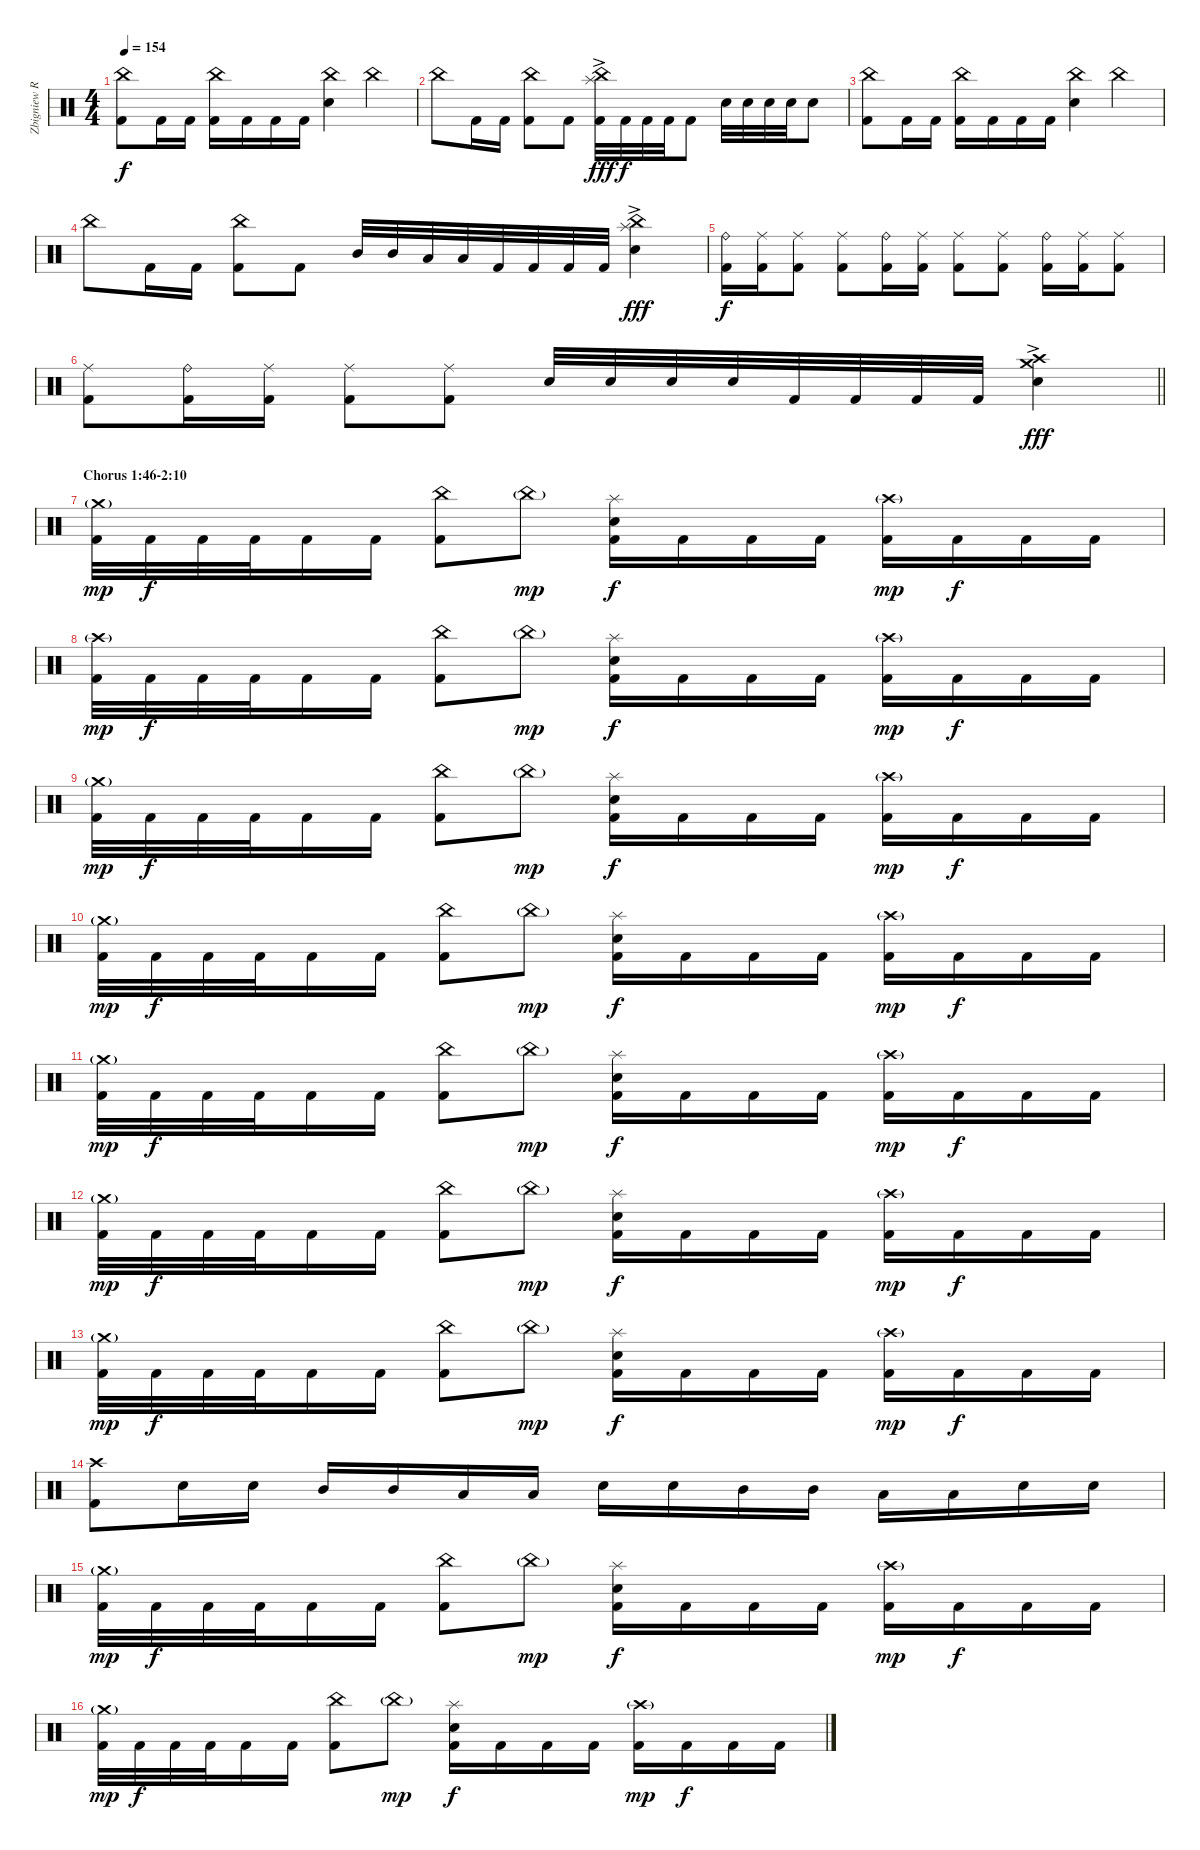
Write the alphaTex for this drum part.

\track ("Zbigniew Robert \"Inferno\" Prominski" "Zbigniew R") {instrument percussion}
\staff {score}
\articulation defaults
\ts (4 4)
\tempo 154
\clef neutral
\ks c
("China (hit)" "Kick (hit) 2").8{dy f} "Kick (hit) 2".16 "Kick (hit) 2".16 ("China (hit)" "Kick (hit) 2").16 "Kick (hit) 2".16 "Kick (hit) 2".16 "Kick (hit) 2".16 ("China (hit)" "Snare (hit) 2").4 "China (hit)".4 |
"China (hit)".8 "Kick (hit) 2".16 "Kick (hit) 2".16 ("China (hit)" "Kick (hit) 2").8 "Kick (hit) 2".8 ("China (hit)"{ac} "Splash (hit)"{ac} "Kick (hit) 2").32{dy fff} "Kick (hit) 2".32{dy f} "Kick (hit) 2".32 "Kick (hit) 2".32 "Kick (hit) 2".8 "Snare (hit) 2".32 "Snare (hit) 2".32 "Snare (hit) 2".32 "Snare (hit) 2".32 "Snare (hit) 2".8 |
("China (hit)" "Kick (hit) 2").8 "Kick (hit) 2".16 "Kick (hit) 2".16 ("China (hit)" "Kick (hit) 2").16 "Kick (hit) 2".16 "Kick (hit) 2".16 "Kick (hit) 2".16 ("China (hit)" "Snare (hit) 2").4 "China (hit)".4 |
"China (hit)".8 "Kick (hit) 2".16 "Kick (hit) 2".16 ("China (hit)" "Kick (hit) 2").8 "Kick (hit) 2".8 "Mid Tom (hit)".32 "Mid Tom (hit)".32 "Low Tom (hit)".32 "Low Tom (hit)".32 "Kick (hit) 2".32 "Kick (hit) 2".32 "Kick (hit) 2".32 "Kick (hit) 2".32 ("Splash (hit)" "China (hit)"{ac} "Snare (hit) 2").4{dy fff} |
("Ride (bell)" "Kick (hit) 2").16{dy f} ("Ride (middle)" "Kick (hit) 2").16 ("Ride (middle)" "Kick (hit) 2").8 ("Ride (middle)" "Kick (hit) 2").8 ("Ride (bell)" "Kick (hit) 2").16 ("Ride (middle)" "Kick (hit) 2").16 ("Ride (middle)" "Kick (hit) 2").8 ("Ride (middle)" "Kick (hit) 2").8 ("Ride (bell)" "Kick (hit) 2").16 ("Ride (middle)" "Kick (hit) 2").16 ("Ride (middle)" "Kick (hit) 2").8 |
\barLineRight lightlight
("Ride (middle)" "Kick (hit) 2").8 ("Ride (bell)" "Kick (hit) 2").16 ("Ride (middle)" "Kick (hit) 2").16 ("Ride (middle)" "Kick (hit) 2").8 ("Ride (middle)" "Kick (hit) 2").8 "Snare (hit) 2".32 "Snare (hit) 2".32 "Snare (hit) 2".32 "Snare (hit) 2".32 "Kick (hit) 2".32 "Kick (hit) 2".32 "Kick (hit) 2".32 "Kick (hit) 2".32 ("Crash high (hit)" "Crash medium (hit)"{ac} "Snare (hit) 2").4{dy fff} |
\section ("" "Chorus 1:46-2:10")
("Crash medium (hit)"{g} "Kick (hit) 2").32{dy mp} "Kick (hit) 2".32{dy f} "Kick (hit) 2".32 "Kick (hit) 2".32 "Kick (hit) 2".16 "Kick (hit) 2".16 ("China (hit)" "Kick (hit) 2").8 "China (hit)"{g}.8{dy mp} ("Splash (hit)" "Snare (hit) 2" "Kick (hit) 2").16{dy f} "Kick (hit) 2".16 "Kick (hit) 2".16 "Kick (hit) 2".16 ("Crash high (hit)"{g} "Kick (hit) 2").16{dy mp} "Kick (hit) 2".16{dy f} "Kick (hit) 2".16 "Kick (hit) 2".16 |
("Crash high (hit)"{g} "Kick (hit) 2").32{dy mp} "Kick (hit) 2".32{dy f} "Kick (hit) 2".32 "Kick (hit) 2".32 "Kick (hit) 2".16 "Kick (hit) 2".16 ("China (hit)" "Kick (hit) 2").8 "China (hit)"{g}.8{dy mp} ("Splash (hit)" "Snare (hit) 2" "Kick (hit) 2").16{dy f} "Kick (hit) 2".16 "Kick (hit) 2".16 "Kick (hit) 2".16 ("Crash high (hit)"{g} "Kick (hit) 2").16{dy mp} "Kick (hit) 2".16{dy f} "Kick (hit) 2".16 "Kick (hit) 2".16 |
("Crash medium (hit)"{g} "Kick (hit) 2").32{dy mp} "Kick (hit) 2".32{dy f} "Kick (hit) 2".32 "Kick (hit) 2".32 "Kick (hit) 2".16 "Kick (hit) 2".16 ("China (hit)" "Kick (hit) 2").8 "China (hit)"{g}.8{dy mp} ("Splash (hit)" "Snare (hit) 2" "Kick (hit) 2").16{dy f} "Kick (hit) 2".16 "Kick (hit) 2".16 "Kick (hit) 2".16 ("Crash high (hit)"{g} "Kick (hit) 2").16{dy mp} "Kick (hit) 2".16{dy f} "Kick (hit) 2".16 "Kick (hit) 2".16 |
("Crash medium (hit)"{g} "Kick (hit) 2").32{dy mp} "Kick (hit) 2".32{dy f} "Kick (hit) 2".32 "Kick (hit) 2".32 "Kick (hit) 2".16 "Kick (hit) 2".16 ("China (hit)" "Kick (hit) 2").8 "China (hit)"{g}.8{dy mp} ("Splash (hit)" "Snare (hit) 2" "Kick (hit) 2").16{dy f} "Kick (hit) 2".16 "Kick (hit) 2".16 "Kick (hit) 2".16 ("Crash high (hit)"{g} "Kick (hit) 2").16{dy mp} "Kick (hit) 2".16{dy f} "Kick (hit) 2".16 "Kick (hit) 2".16 |
("Crash medium (hit)"{g} "Kick (hit) 2").32{dy mp} "Kick (hit) 2".32{dy f} "Kick (hit) 2".32 "Kick (hit) 2".32 "Kick (hit) 2".16 "Kick (hit) 2".16 ("China (hit)" "Kick (hit) 2").8 "China (hit)"{g}.8{dy mp} ("Splash (hit)" "Snare (hit) 2" "Kick (hit) 2").16{dy f} "Kick (hit) 2".16 "Kick (hit) 2".16 "Kick (hit) 2".16 ("Crash high (hit)"{g} "Kick (hit) 2").16{dy mp} "Kick (hit) 2".16{dy f} "Kick (hit) 2".16 "Kick (hit) 2".16 |
("Crash medium (hit)"{g} "Kick (hit) 2").32{dy mp} "Kick (hit) 2".32{dy f} "Kick (hit) 2".32 "Kick (hit) 2".32 "Kick (hit) 2".16 "Kick (hit) 2".16 ("China (hit)" "Kick (hit) 2").8 "China (hit)"{g}.8{dy mp} ("Splash (hit)" "Snare (hit) 2" "Kick (hit) 2").16{dy f} "Kick (hit) 2".16 "Kick (hit) 2".16 "Kick (hit) 2".16 ("Crash high (hit)"{g} "Kick (hit) 2").16{dy mp} "Kick (hit) 2".16{dy f} "Kick (hit) 2".16 "Kick (hit) 2".16 |
("Crash medium (hit)"{g} "Kick (hit) 2").32{dy mp} "Kick (hit) 2".32{dy f} "Kick (hit) 2".32 "Kick (hit) 2".32 "Kick (hit) 2".16 "Kick (hit) 2".16 ("China (hit)" "Kick (hit) 2").8 "China (hit)"{g}.8{dy mp} ("Splash (hit)" "Snare (hit) 2" "Kick (hit) 2").16{dy f} "Kick (hit) 2".16 "Kick (hit) 2".16 "Kick (hit) 2".16 ("Crash high (hit)"{g} "Kick (hit) 2").16{dy mp} "Kick (hit) 2".16{dy f} "Kick (hit) 2".16 "Kick (hit) 2".16 |
("Crash high (hit)" "Kick (hit) 2").8 "Snare (hit) 2".16 "Snare (hit) 2".16 "Mid Tom (hit)".16 "Mid Tom (hit)".16 "Low Tom (hit)".16 "Low Tom (hit)".16 "Snare (hit) 2".16 "Snare (hit) 2".16 "Mid Tom (hit)".16 "Mid Tom (hit)".16 "Low Tom (hit)".16 "Low Tom (hit)".16 "Snare (hit) 2".16 "Snare (hit) 2".16 |
("Crash medium (hit)"{g} "Kick (hit) 2").32{dy mp} "Kick (hit) 2".32{dy f} "Kick (hit) 2".32 "Kick (hit) 2".32 "Kick (hit) 2".16 "Kick (hit) 2".16 ("China (hit)" "Kick (hit) 2").8 "China (hit)"{g}.8{dy mp} ("Splash (hit)" "Snare (hit) 2" "Kick (hit) 2").16{dy f} "Kick (hit) 2".16 "Kick (hit) 2".16 "Kick (hit) 2".16 ("Crash high (hit)"{g} "Kick (hit) 2").16{dy mp} "Kick (hit) 2".16{dy f} "Kick (hit) 2".16 "Kick (hit) 2".16 |
("Crash medium (hit)"{g} "Kick (hit) 2").32{dy mp} "Kick (hit) 2".32{dy f} "Kick (hit) 2".32 "Kick (hit) 2".32 "Kick (hit) 2".16 "Kick (hit) 2".16 ("China (hit)" "Kick (hit) 2").8 "China (hit)"{g}.8{dy mp} ("Splash (hit)" "Snare (hit) 2" "Kick (hit) 2").16{dy f} "Kick (hit) 2".16 "Kick (hit) 2".16 "Kick (hit) 2".16 ("Crash high (hit)"{g} "Kick (hit) 2").16{dy mp} "Kick (hit) 2".16{dy f} "Kick (hit) 2".16 "Kick (hit) 2".16
